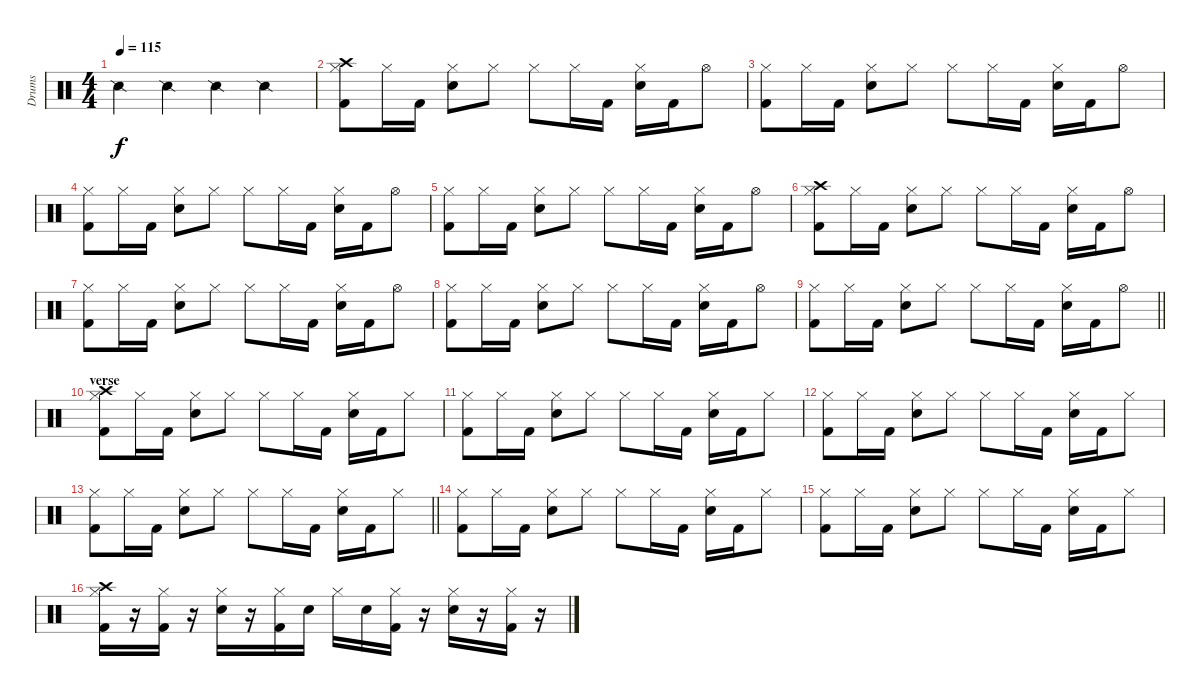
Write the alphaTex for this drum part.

\track ("Drums" "Drums") {instrument percussion}
\staff {score}
\articulation defaults
\ts (4 4)
\tempo 115
\clef neutral
\ks c "Snare (side stick) 2".4{dy f} "Snare (side stick) 2".4 "Snare (side stick) 2".4 "Snare (side stick) 2".4
|
("Crash high (hit)" "Hi-Hat (closed)" "Kick (hit) 2").8 "Hi-Hat (closed)".16 "Kick (hit) 2".16 ("Hi-Hat (closed)" "Snare (hit) 2").8 "Hi-Hat (closed)".8 "Hi-Hat (closed)".8 "Hi-Hat (closed)".16 "Kick (hit) 2".16 ("Hi-Hat (closed)" "Snare (hit) 2").16 "Kick (hit) 2".16 "Hi-Hat (open)".8 |
("Hi-Hat (closed)" "Kick (hit) 2").8 "Hi-Hat (closed)".16 "Kick (hit) 2".16 ("Hi-Hat (closed)" "Snare (hit) 2").8 "Hi-Hat (closed)".8 "Hi-Hat (closed)".8 "Hi-Hat (closed)".16 "Kick (hit) 2".16 ("Hi-Hat (closed)" "Snare (hit) 2").16 "Kick (hit) 2".16 "Hi-Hat (open)".8 |
("Hi-Hat (closed)" "Kick (hit) 2").8 "Hi-Hat (closed)".16 "Kick (hit) 2".16 ("Hi-Hat (closed)" "Snare (hit) 2").8 "Hi-Hat (closed)".8 "Hi-Hat (closed)".8 "Hi-Hat (closed)".16 "Kick (hit) 2".16 ("Hi-Hat (closed)" "Snare (hit) 2").16 "Kick (hit) 2".16 "Hi-Hat (open)".8 |
("Hi-Hat (closed)" "Kick (hit) 2").8 "Hi-Hat (closed)".16 "Kick (hit) 2".16 ("Hi-Hat (closed)" "Snare (hit) 2").8 "Hi-Hat (closed)".8 "Hi-Hat (closed)".8 "Hi-Hat (closed)".16 "Kick (hit) 2".16 ("Hi-Hat (closed)" "Snare (hit) 2").16 "Kick (hit) 2".16 "Hi-Hat (open)".8 |
("Crash high (hit)" "Hi-Hat (closed)" "Kick (hit) 2").8 "Hi-Hat (closed)".16 "Kick (hit) 2".16 ("Hi-Hat (closed)" "Snare (hit) 2").8 "Hi-Hat (closed)".8 "Hi-Hat (closed)".8 "Hi-Hat (closed)".16 "Kick (hit) 2".16 ("Hi-Hat (closed)" "Snare (hit) 2").16 "Kick (hit) 2".16 "Hi-Hat (open)".8 |
("Hi-Hat (closed)" "Kick (hit) 2").8 "Hi-Hat (closed)".16 "Kick (hit) 2".16 ("Hi-Hat (closed)" "Snare (hit) 2").8 "Hi-Hat (closed)".8 "Hi-Hat (closed)".8 "Hi-Hat (closed)".16 "Kick (hit) 2".16 ("Hi-Hat (closed)" "Snare (hit) 2").16 "Kick (hit) 2".16 "Hi-Hat (open)".8 |
("Hi-Hat (closed)" "Kick (hit) 2").8 "Hi-Hat (closed)".16 "Kick (hit) 2".16 ("Hi-Hat (closed)" "Snare (hit) 2").8 "Hi-Hat (closed)".8 "Hi-Hat (closed)".8 "Hi-Hat (closed)".16 "Kick (hit) 2".16 ("Hi-Hat (closed)" "Snare (hit) 2").16 "Kick (hit) 2".16 "Hi-Hat (open)".8 |
\barLineRight lightlight
("Hi-Hat (closed)" "Kick (hit) 2").8 "Hi-Hat (closed)".16 "Kick (hit) 2".16 ("Hi-Hat (closed)" "Snare (hit) 2").8 "Hi-Hat (closed)".8 "Hi-Hat (closed)".8 "Hi-Hat (closed)".16 "Kick (hit) 2".16 ("Hi-Hat (closed)" "Snare (hit) 2").16 "Kick (hit) 2".16 "Hi-Hat (open)".8 |
\section ("" "verse")
("Crash high (hit)" "Hi-Hat (closed)" "Kick (hit) 2").8 "Hi-Hat (closed)".16 "Kick (hit) 2".16 ("Hi-Hat (closed)" "Snare (hit) 2").8 "Hi-Hat (closed)".8 "Hi-Hat (closed)".8 "Hi-Hat (closed)".16 "Kick (hit) 2".16 ("Hi-Hat (closed)" "Snare (hit) 2").16 "Kick (hit) 2".16 "Hi-Hat (closed)".8 |
("Hi-Hat (closed)" "Kick (hit) 2").8 "Hi-Hat (closed)".16 "Kick (hit) 2".16 ("Hi-Hat (closed)" "Snare (hit) 2").8 "Hi-Hat (closed)".8 "Hi-Hat (closed)".8 "Hi-Hat (closed)".16 "Kick (hit) 2".16 ("Hi-Hat (closed)" "Snare (hit) 2").16 "Kick (hit) 2".16 "Hi-Hat (closed)".8 |
("Hi-Hat (closed)" "Kick (hit) 2").8 "Hi-Hat (closed)".16 "Kick (hit) 2".16 ("Hi-Hat (closed)" "Snare (hit) 2").8 "Hi-Hat (closed)".8 "Hi-Hat (closed)".8 "Hi-Hat (closed)".16 "Kick (hit) 2".16 ("Hi-Hat (closed)" "Snare (hit) 2").16 "Kick (hit) 2".16 "Hi-Hat (closed)".8 |
\barLineRight lightlight
("Hi-Hat (closed)" "Kick (hit) 2").8 "Hi-Hat (closed)".16 "Kick (hit) 2".16 ("Hi-Hat (closed)" "Snare (hit) 2").8 "Hi-Hat (closed)".8 "Hi-Hat (closed)".8 "Hi-Hat (closed)".16 "Kick (hit) 2".16 ("Hi-Hat (closed)" "Snare (hit) 2").16 "Kick (hit) 2".16 "Hi-Hat (closed)".8 |
("Hi-Hat (closed)" "Kick (hit) 2").8 "Hi-Hat (closed)".16 "Kick (hit) 2".16 ("Hi-Hat (closed)" "Snare (hit) 2").8 "Hi-Hat (closed)".8 "Hi-Hat (closed)".8 "Hi-Hat (closed)".16 "Kick (hit) 2".16 ("Hi-Hat (closed)" "Snare (hit) 2").16 "Kick (hit) 2".16 "Hi-Hat (closed)".8 |
("Hi-Hat (closed)" "Kick (hit) 2").8 "Hi-Hat (closed)".16 "Kick (hit) 2".16 ("Hi-Hat (closed)" "Snare (hit) 2").8 "Hi-Hat (closed)".8 "Hi-Hat (closed)".8 "Hi-Hat (closed)".16 "Kick (hit) 2".16 ("Hi-Hat (closed)" "Snare (hit) 2").16 "Kick (hit) 2".16 "Hi-Hat (closed)".8 |
("Crash high (hit)" "Hi-Hat (closed)" "Kick (hit) 2").16 r.16 ("Hi-Hat (closed)" "Kick (hit) 2").16 r.16 ("Hi-Hat (closed)" "Snare (hit) 2").16 r.16 ("Hi-Hat (closed)" "Kick (hit) 2").16 "Snare (hit) 2".16 "Hi-Hat (closed)".16 "Snare (hit) 2".16 ("Hi-Hat (closed)" "Kick (hit) 2").16 r.16 ("Hi-Hat (closed)" "Snare (hit) 2").16 r.16 ("Hi-Hat (closed)" "Kick (hit) 2").16 r.16
